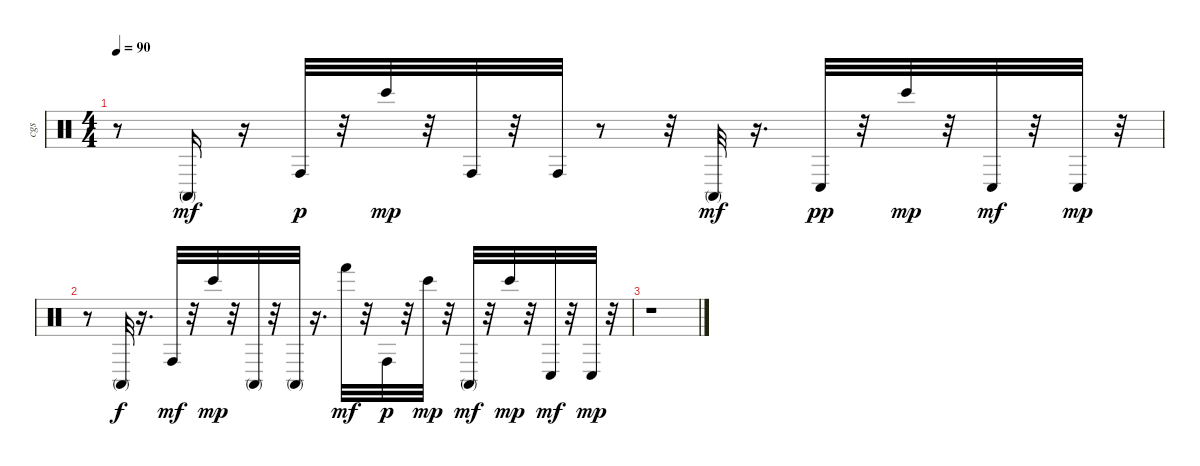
\track ("cgs" "cgs") {instrument percussion}
\staff {score}
\articulation defaults
\ts (4 4)
\tempo 90
\clef neutral
\ks c
r.8{dy mp} "Conga high (mute)".16{dy mf} r.16 "Conga high (hit)".32{dy p} r.32 "Bongo High (hit)".32{dy mp} r.32 "Conga high (hit)".32 r.32 "Conga high (hit)".32 r.8 r.32 "Conga high (mute)".32{dy mf} r.16{d} "Conga low (hit)".32{dy pp} r.32 "Bongo High (hit)".32{dy mp} r.32 "Conga low (hit)".32{dy mf} r.32 "Conga low (hit)".32{dy mp} r.32 |
r.8 "Conga high (mute)".32{dy f} r.16{d} "Conga high (hit)".32{dy mf} r.32 "Bongo High (hit)".32{dy mp} r.32 "Conga high (mute)".32 r.32 "Conga high (mute)".32 r.16{d} "Hand (hit)".32{dy mf} r.32 "Conga high (hit)".32{dy p} r.32 "Bongo High (hit)".32{dy mp} r.32 "Conga high (mute)".32{dy mf} r.32 "Bongo High (hit)".32{dy mp} r.32 "Conga low (hit)".32{dy mf} r.32 "Conga low (hit)".32{dy mp} r.32 |
r.1
